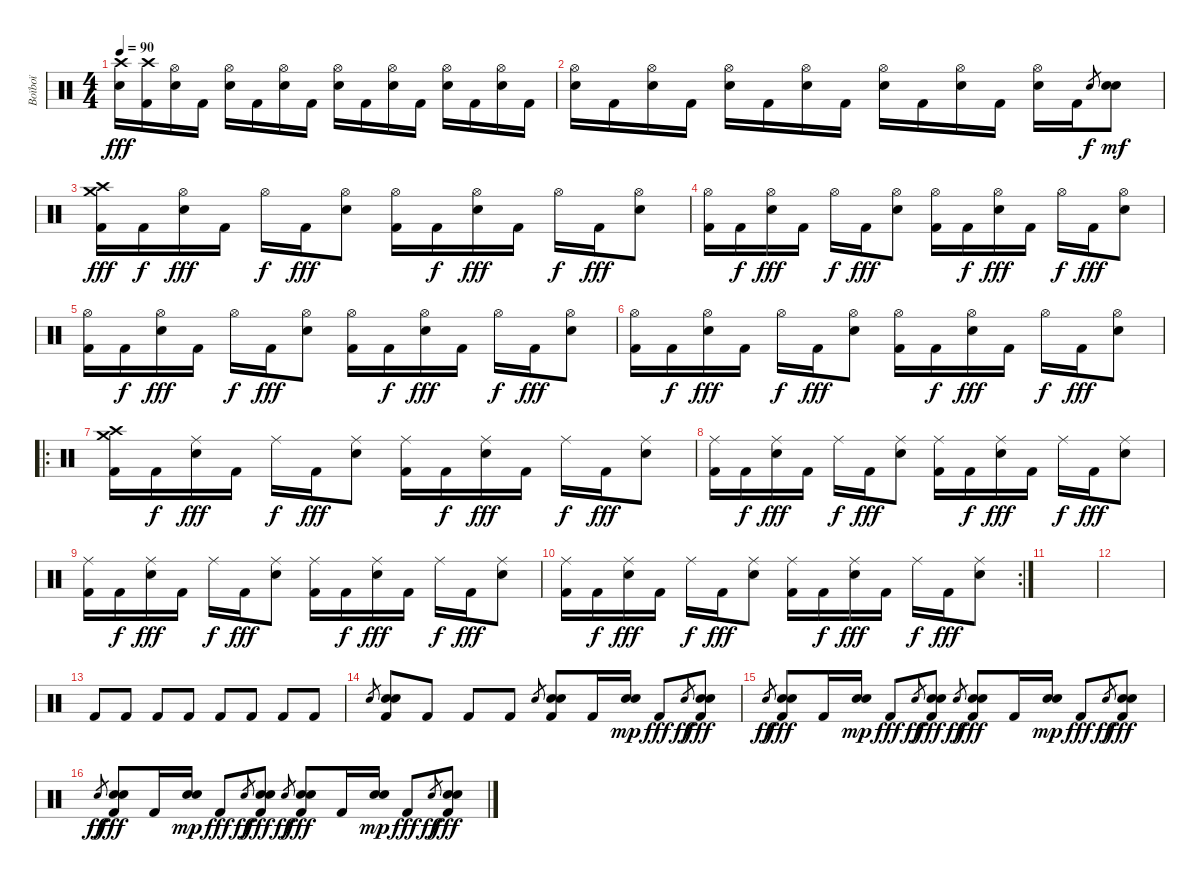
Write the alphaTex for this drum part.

\track ("Boïboï" "Boïboï") {instrument percussion}
\staff {score}
\articulation defaults
\ts (4 4)
\tempo 90
\clef neutral
\ks c
("Crash high (hit)" "Electric Snare (hit)").16{dy fff} ("Crash high (hit)" "Kick (hit) 2").16 ("Hi-Hat (open)" "Electric Snare (hit)").16 "Kick (hit) 2".16 ("Hi-Hat (open)" "Electric Snare (hit)").16 "Kick (hit) 2".16 ("Hi-Hat (open)" "Electric Snare (hit)").16 "Kick (hit) 2".16 ("Hi-Hat (open)" "Electric Snare (hit)").16 "Kick (hit) 2".16 ("Hi-Hat (open)" "Electric Snare (hit)").16 "Kick (hit) 2".16 ("Hi-Hat (open)" "Electric Snare (hit)").16 "Kick (hit) 2".16 ("Hi-Hat (open)" "Electric Snare (hit)").16 "Kick (hit) 2".16 |
("Hi-Hat (open)" "Electric Snare (hit)").16 "Kick (hit) 2".16 ("Hi-Hat (open)" "Electric Snare (hit)").16 "Kick (hit) 2".16 ("Hi-Hat (open)" "Electric Snare (hit)").16 "Kick (hit) 2".16 ("Hi-Hat (open)" "Electric Snare (hit)").16 "Kick (hit) 2".16 ("Hi-Hat (open)" "Electric Snare (hit)").16 "Kick (hit) 2".16 ("Hi-Hat (open)" "Electric Snare (hit)").16 "Kick (hit) 2".16 ("Hi-Hat (open)" "Electric Snare (hit)").16 "Kick (hit) 2".16 "Electric Snare (hit)".8{gr dy f} ("Electric Snare (hit)" "Snare (hit) 2").8{dy mf} |
("Crash medium (hit)" "Crash high (hit)" "Kick (hit) 2").16{dy fff} "Kick (hit) 2".16{dy f} ("Hi-Hat (open)" "Electric Snare (hit)").16{dy fff} "Kick (hit) 2".16 "Hi-Hat (open)".16{dy f} "Kick (hit) 2".16{dy fff} ("Hi-Hat (open)" "Electric Snare (hit)").8 ("Hi-Hat (open)" "Kick (hit) 2").16 "Kick (hit) 2".16{dy f} ("Hi-Hat (open)" "Electric Snare (hit)").16{dy fff} "Kick (hit) 2".16 "Hi-Hat (open)".16{dy f} "Kick (hit) 2".16{dy fff} ("Hi-Hat (open)" "Electric Snare (hit)").8 |
("Hi-Hat (open)" "Kick (hit) 2").16 "Kick (hit) 2".16{dy f} ("Hi-Hat (open)" "Electric Snare (hit)").16{dy fff} "Kick (hit) 2".16 "Hi-Hat (open)".16{dy f} "Kick (hit) 2".16{dy fff} ("Hi-Hat (open)" "Electric Snare (hit)").8 ("Hi-Hat (open)" "Kick (hit) 2").16 "Kick (hit) 2".16{dy f} ("Hi-Hat (open)" "Electric Snare (hit)").16{dy fff} "Kick (hit) 2".16 "Hi-Hat (open)".16{dy f} "Kick (hit) 2".16{dy fff} ("Hi-Hat (open)" "Electric Snare (hit)").8 |
("Hi-Hat (open)" "Kick (hit) 2").16 "Kick (hit) 2".16{dy f} ("Hi-Hat (open)" "Electric Snare (hit)").16{dy fff} "Kick (hit) 2".16 "Hi-Hat (open)".16{dy f} "Kick (hit) 2".16{dy fff} ("Hi-Hat (open)" "Electric Snare (hit)").8 ("Hi-Hat (open)" "Kick (hit) 2").16 "Kick (hit) 2".16{dy f} ("Hi-Hat (open)" "Electric Snare (hit)").16{dy fff} "Kick (hit) 2".16 "Hi-Hat (open)".16{dy f} "Kick (hit) 2".16{dy fff} ("Hi-Hat (open)" "Electric Snare (hit)").8 |
("Hi-Hat (open)" "Kick (hit) 2").16 "Kick (hit) 2".16{dy f} ("Hi-Hat (open)" "Electric Snare (hit)").16{dy fff} "Kick (hit) 2".16 "Hi-Hat (open)".16{dy f} "Kick (hit) 2".16{dy fff} ("Hi-Hat (open)" "Electric Snare (hit)").8 ("Hi-Hat (open)" "Kick (hit) 2").16 "Kick (hit) 2".16{dy f} ("Hi-Hat (open)" "Electric Snare (hit)").16{dy fff} "Kick (hit) 2".16 "Hi-Hat (open)".16{dy f} "Kick (hit) 2".16{dy fff} ("Hi-Hat (open)" "Electric Snare (hit)").8 |
\ro
("Crash medium (hit)" "Crash high (hit)" "Kick (hit) 2").16 "Kick (hit) 2".16{dy f} ("Ride (middle)" "Electric Snare (hit)").16{dy fff} "Kick (hit) 2".16 "Ride (middle)".16{dy f} "Kick (hit) 2".16{dy fff} ("Ride (middle)" "Electric Snare (hit)").8 ("Ride (middle)" "Kick (hit) 2").16 "Kick (hit) 2".16{dy f} ("Ride (middle)" "Electric Snare (hit)").16{dy fff} "Kick (hit) 2".16 "Ride (middle)".16{dy f} "Kick (hit) 2".16{dy fff} ("Ride (middle)" "Electric Snare (hit)").8 |
("Ride (middle)" "Kick (hit) 2").16 "Kick (hit) 2".16{dy f} ("Ride (middle)" "Electric Snare (hit)").16{dy fff} "Kick (hit) 2".16 "Ride (middle)".16{dy f} "Kick (hit) 2".16{dy fff} ("Ride (middle)" "Electric Snare (hit)").8 ("Ride (middle)" "Kick (hit) 2").16 "Kick (hit) 2".16{dy f} ("Ride (middle)" "Electric Snare (hit)").16{dy fff} "Kick (hit) 2".16 "Ride (middle)".16{dy f} "Kick (hit) 2".16{dy fff} ("Ride (middle)" "Electric Snare (hit)").8 |
("Ride (middle)" "Kick (hit) 2").16 "Kick (hit) 2".16{dy f} ("Ride (middle)" "Electric Snare (hit)").16{dy fff} "Kick (hit) 2".16 "Ride (middle)".16{dy f} "Kick (hit) 2".16{dy fff} ("Ride (middle)" "Electric Snare (hit)").8 ("Ride (middle)" "Kick (hit) 2").16 "Kick (hit) 2".16{dy f} ("Ride (middle)" "Electric Snare (hit)").16{dy fff} "Kick (hit) 2".16 "Ride (middle)".16{dy f} "Kick (hit) 2".16{dy fff} ("Ride (middle)" "Electric Snare (hit)").8 |
\rc 2
("Ride (middle)" "Kick (hit) 2").16 "Kick (hit) 2".16{dy f} ("Ride (middle)" "Electric Snare (hit)").16{dy fff} "Kick (hit) 2".16 "Ride (middle)".16{dy f} "Kick (hit) 2".16{dy fff} ("Ride (middle)" "Electric Snare (hit)").8 ("Ride (middle)" "Kick (hit) 2").16 "Kick (hit) 2".16{dy f} ("Ride (middle)" "Electric Snare (hit)").16{dy fff} "Kick (hit) 2".16 "Ride (middle)".16{dy f} "Kick (hit) 2".16{dy fff} ("Ride (middle)" "Electric Snare (hit)").8 |
|
|
"Kick (hit) 2".8 "Kick (hit) 2".8 "Kick (hit) 2".8 "Kick (hit) 2".8 "Kick (hit) 2".8 "Kick (hit) 2".8 "Kick (hit) 2".8 "Kick (hit) 2".8 |
"Electric Snare (hit)".8{gr} ("Electric Snare (hit)" "Snare (hit) 2" "Kick (hit) 2").8 "Kick (hit) 2".8 "Kick (hit) 2".8 "Kick (hit) 2".8 "Electric Snare (hit)".8{gr} ("Electric Snare (hit)" "Snare (hit) 2" "Kick (hit) 2").8 "Kick (hit) 2".16 ("Electric Snare (hit)" "Snare (hit) 2").16{dy mp} "Kick (hit) 2".8{dy fff} "Electric Snare (hit)".8{gr dy ff} ("Electric Snare (hit)" "Snare (hit) 2" "Kick (hit) 2").8{dy fff} |
"Electric Snare (hit)".8{gr dy ff} ("Electric Snare (hit)" "Snare (hit) 2" "Kick (hit) 2").8{dy fff} "Kick (hit) 2".16 ("Electric Snare (hit)" "Snare (hit) 2").16{dy mp} "Kick (hit) 2".8{dy fff} "Electric Snare (hit)".8{gr dy ff} ("Electric Snare (hit)" "Snare (hit) 2" "Kick (hit) 2").8{dy fff} "Electric Snare (hit)".8{gr dy ff} ("Electric Snare (hit)" "Snare (hit) 2" "Kick (hit) 2").8{dy fff} "Kick (hit) 2".16 ("Electric Snare (hit)" "Snare (hit) 2").16{dy mp} "Kick (hit) 2".8{dy fff} "Electric Snare (hit)".8{gr dy ff} ("Electric Snare (hit)" "Snare (hit) 2" "Kick (hit) 2").8{dy fff} |
"Electric Snare (hit)".8{gr dy ff} ("Electric Snare (hit)" "Snare (hit) 2" "Kick (hit) 2").8{dy fff} "Kick (hit) 2".16 ("Electric Snare (hit)" "Snare (hit) 2").16{dy mp} "Kick (hit) 2".8{dy fff} "Electric Snare (hit)".8{gr dy ff} ("Electric Snare (hit)" "Snare (hit) 2" "Kick (hit) 2").8{dy fff} "Electric Snare (hit)".8{gr dy ff} ("Electric Snare (hit)" "Snare (hit) 2" "Kick (hit) 2").8{dy fff} "Kick (hit) 2".16 ("Electric Snare (hit)" "Snare (hit) 2").16{dy mp} "Kick (hit) 2".8{dy fff} "Electric Snare (hit)".8{gr dy ff} ("Electric Snare (hit)" "Snare (hit) 2" "Kick (hit) 2").8{dy fff}
